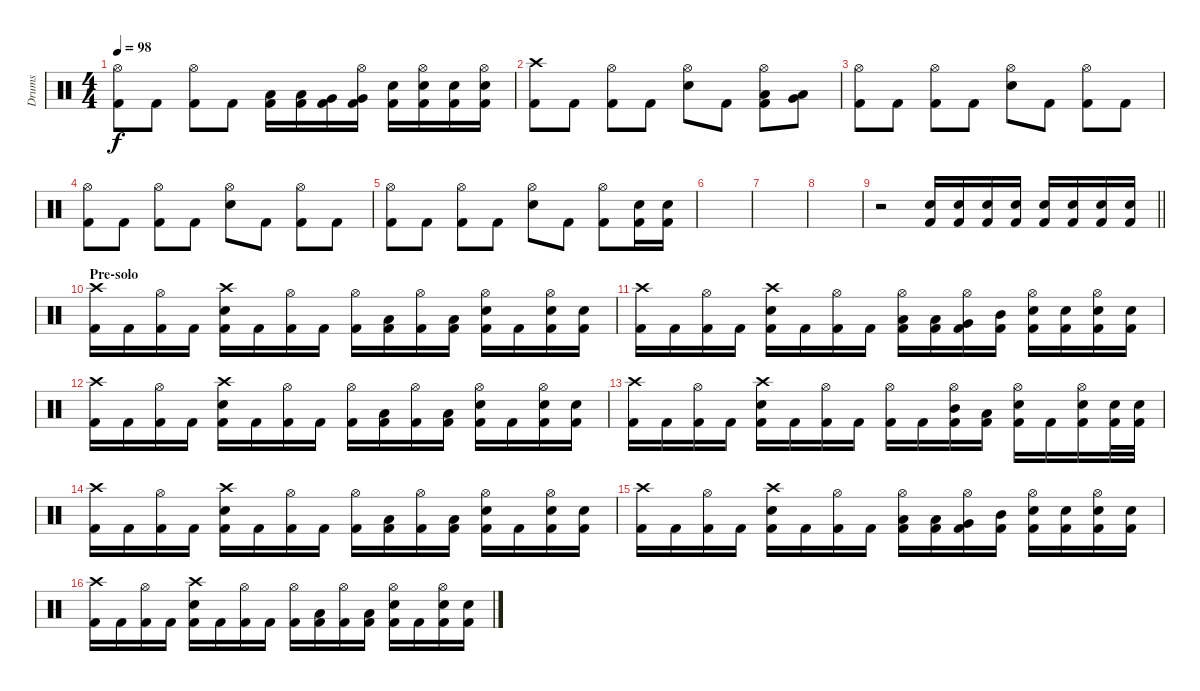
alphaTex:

\track ("Drums" "Drums") {instrument percussion}
\staff {score}
\articulation defaults
\ts (4 4)
\tempo 98
\clef neutral
\ks c
("Hi-Hat (open)" "Kick (hit) 2").8{dy f} "Kick (hit) 2".8 ("Hi-Hat (open)" "Kick (hit) 2").8 "Kick (hit) 2".8 ("Kick (hit) 2" "Low Floor Tom (hit)").16 ("Kick (hit) 2" "Low Floor Tom (hit)").16 ("Kick (hit) 2" "Very Low Tom (hit)").16 ("Kick (hit) 2" "Very Low Tom (hit)" "Hi-Hat (open)").16 ("Kick (hit) 2" "Snare (hit) 2").16 ("Kick (hit) 2" "Snare (hit) 2" "Hi-Hat (open)").16 ("Kick (hit) 2" "Electric Snare (hit)").16 ("Kick (hit) 2" "Electric Snare (hit)" "Hi-Hat (open)").16 |
("Crash high (hit)" "Kick (hit) 2").8 "Kick (hit) 2".8 ("Hi-Hat (open)" "Kick (hit) 2").8 "Kick (hit) 2".8 ("Hi-Hat (open)" "Snare (hit) 2").8 "Kick (hit) 2".8 ("Hi-Hat (open)" "Kick (hit) 2" "Low Floor Tom (hit)").8 ("Very Low Tom (hit)" "Low Floor Tom (hit)").8 |
("Hi-Hat (open)" "Kick (hit) 2").8 "Kick (hit) 2".8 ("Hi-Hat (open)" "Kick (hit) 2").8 "Kick (hit) 2".8 ("Hi-Hat (open)" "Snare (hit) 2").8 "Kick (hit) 2".8 ("Hi-Hat (open)" "Kick (hit) 2").8 "Kick (hit) 2".8 |
("Hi-Hat (open)" "Kick (hit) 2").8 "Kick (hit) 2".8 ("Hi-Hat (open)" "Kick (hit) 2").8 "Kick (hit) 2".8 ("Hi-Hat (open)" "Snare (hit) 2").8 "Kick (hit) 2".8 ("Hi-Hat (open)" "Kick (hit) 2").8 "Kick (hit) 2".8 |
("Hi-Hat (open)" "Kick (hit) 2").8 "Kick (hit) 2".8 ("Hi-Hat (open)" "Kick (hit) 2").8 "Kick (hit) 2".8 ("Hi-Hat (open)" "Snare (hit) 2").8 "Kick (hit) 2".8 ("Hi-Hat (open)" "Kick (hit) 2").8 ("Kick (hit) 2" "Snare (hit) 2").16 ("Kick (hit) 2" "Snare (hit) 2").16 |
|
|
|
\barLineRight lightlight
r.2 ("Kick (hit) 2" "Snare (hit) 2").16 ("Kick (hit) 2" "Snare (hit) 2").16 ("Kick (hit) 2" "Snare (hit) 2").16 ("Kick (hit) 2" "Snare (hit) 2").16 ("Kick (hit) 2" "Electric Snare (hit)").16 ("Kick (hit) 2" "Electric Snare (hit)").16 ("Kick (hit) 2" "Electric Snare (hit)").16 ("Kick (hit) 2" "Electric Snare (hit)").16 |
\section ("" "Pre-solo")
("Kick (hit) 2" "Crash high (hit)").16 "Kick (hit) 2".16 ("Kick (hit) 2" "Hi-Hat (open)").16 "Kick (hit) 2".16 ("Kick (hit) 2" "Crash high (hit)" "Snare (hit) 2").16 "Kick (hit) 2".16 ("Kick (hit) 2" "Hi-Hat (open)").16 "Kick (hit) 2".16 ("Kick (hit) 2" "Hi-Hat (open)").16 ("Kick (hit) 2" "Low Tom (hit)").16 ("Kick (hit) 2" "Hi-Hat (open)").16 ("Kick (hit) 2" "Low Floor Tom (hit)").16 ("Kick (hit) 2" "Hi-Hat (open)" "Snare (hit) 2").16 "Kick (hit) 2".16 ("Kick (hit) 2" "Hi-Hat (open)" "Electric Snare (hit)").16 ("Kick (hit) 2" "Snare (hit) 2").16 |
("Kick (hit) 2" "Crash high (hit)").16 "Kick (hit) 2".16 ("Kick (hit) 2" "Hi-Hat (open)").16 "Kick (hit) 2".16 ("Kick (hit) 2" "Crash high (hit)" "Snare (hit) 2").16 "Kick (hit) 2".16 ("Kick (hit) 2" "Hi-Hat (open)").16 "Kick (hit) 2".16 ("Kick (hit) 2" "Hi-Hat (open)" "Low Floor Tom (hit)").16 ("Kick (hit) 2" "Low Floor Tom (hit)").16 ("Kick (hit) 2" "Hi-Hat (open)" "Very Low Tom (hit)").16 ("Kick (hit) 2" "Mid Tom (hit)").16 ("Kick (hit) 2" "Hi-Hat (open)" "Snare (hit) 2").16 ("Kick (hit) 2" "Snare (hit) 2").16 ("Kick (hit) 2" "Hi-Hat (open)" "Electric Snare (hit)").16 ("Kick (hit) 2" "Electric Snare (hit)").16 |
("Kick (hit) 2" "Crash high (hit)").16 "Kick (hit) 2".16 ("Kick (hit) 2" "Hi-Hat (open)").16 "Kick (hit) 2".16 ("Kick (hit) 2" "Crash high (hit)" "Snare (hit) 2").16 "Kick (hit) 2".16 ("Kick (hit) 2" "Hi-Hat (open)").16 "Kick (hit) 2".16 ("Kick (hit) 2" "Hi-Hat (open)").16 ("Kick (hit) 2" "Low Tom (hit)").16 ("Kick (hit) 2" "Hi-Hat (open)").16 ("Kick (hit) 2" "Low Floor Tom (hit)").16 ("Kick (hit) 2" "Hi-Hat (open)" "Snare (hit) 2").16 "Kick (hit) 2".16 ("Kick (hit) 2" "Hi-Hat (open)" "Electric Snare (hit)").16 ("Kick (hit) 2" "Snare (hit) 2").16 |
("Kick (hit) 2" "Crash high (hit)").16 "Kick (hit) 2".16 ("Kick (hit) 2" "Hi-Hat (open)").16 "Kick (hit) 2".16 ("Kick (hit) 2" "Crash high (hit)" "Snare (hit) 2").16 "Kick (hit) 2".16 ("Kick (hit) 2" "Hi-Hat (open)").16 "Kick (hit) 2".16 ("Kick (hit) 2" "Hi-Hat (open)").16 "Kick (hit) 2".16 ("Kick (hit) 2" "Hi-Hat (open)" "Mid Tom (hit)").16 ("Kick (hit) 2" "Low Tom (hit)").16 ("Kick (hit) 2" "Hi-Hat (open)" "Snare (hit) 2").16 "Kick (hit) 2".16 ("Kick (hit) 2" "Hi-Hat (open)" "Electric Snare (hit)").16 ("Kick (hit) 2" "Snare (hit) 2").32 ("Electric Snare (hit)" "Kick (hit) 2").32 |
("Kick (hit) 2" "Crash high (hit)").16 "Kick (hit) 2".16 ("Kick (hit) 2" "Hi-Hat (open)").16 "Kick (hit) 2".16 ("Kick (hit) 2" "Crash high (hit)" "Snare (hit) 2").16 "Kick (hit) 2".16 ("Kick (hit) 2" "Hi-Hat (open)").16 "Kick (hit) 2".16 ("Kick (hit) 2" "Hi-Hat (open)").16 ("Kick (hit) 2" "Low Tom (hit)").16 ("Kick (hit) 2" "Hi-Hat (open)").16 ("Kick (hit) 2" "Low Floor Tom (hit)").16 ("Kick (hit) 2" "Hi-Hat (open)" "Snare (hit) 2").16 "Kick (hit) 2".16 ("Kick (hit) 2" "Hi-Hat (open)" "Electric Snare (hit)").16 ("Kick (hit) 2" "Snare (hit) 2").16 |
("Kick (hit) 2" "Crash high (hit)").16 "Kick (hit) 2".16 ("Kick (hit) 2" "Hi-Hat (open)").16 "Kick (hit) 2".16 ("Kick (hit) 2" "Crash high (hit)" "Snare (hit) 2").16 "Kick (hit) 2".16 ("Kick (hit) 2" "Hi-Hat (open)").16 "Kick (hit) 2".16 ("Kick (hit) 2" "Hi-Hat (open)" "Low Floor Tom (hit)").16 ("Kick (hit) 2" "Low Floor Tom (hit)").16 ("Kick (hit) 2" "Hi-Hat (open)" "Very Low Tom (hit)").16 ("Kick (hit) 2" "Mid Tom (hit)").16 ("Kick (hit) 2" "Hi-Hat (open)" "Snare (hit) 2").16 ("Kick (hit) 2" "Snare (hit) 2").16 ("Kick (hit) 2" "Hi-Hat (open)" "Electric Snare (hit)").16 ("Kick (hit) 2" "Electric Snare (hit)").16 |
("Kick (hit) 2" "Crash high (hit)").16 "Kick (hit) 2".16 ("Kick (hit) 2" "Hi-Hat (open)").16 "Kick (hit) 2".16 ("Kick (hit) 2" "Crash high (hit)" "Snare (hit) 2").16 "Kick (hit) 2".16 ("Kick (hit) 2" "Hi-Hat (open)").16 "Kick (hit) 2".16 ("Kick (hit) 2" "Hi-Hat (open)").16 ("Kick (hit) 2" "Low Tom (hit)").16 ("Kick (hit) 2" "Hi-Hat (open)").16 ("Kick (hit) 2" "Low Floor Tom (hit)").16 ("Kick (hit) 2" "Hi-Hat (open)" "Snare (hit) 2").16 "Kick (hit) 2".16 ("Kick (hit) 2" "Hi-Hat (open)" "Electric Snare (hit)").16 ("Kick (hit) 2" "Snare (hit) 2").16
